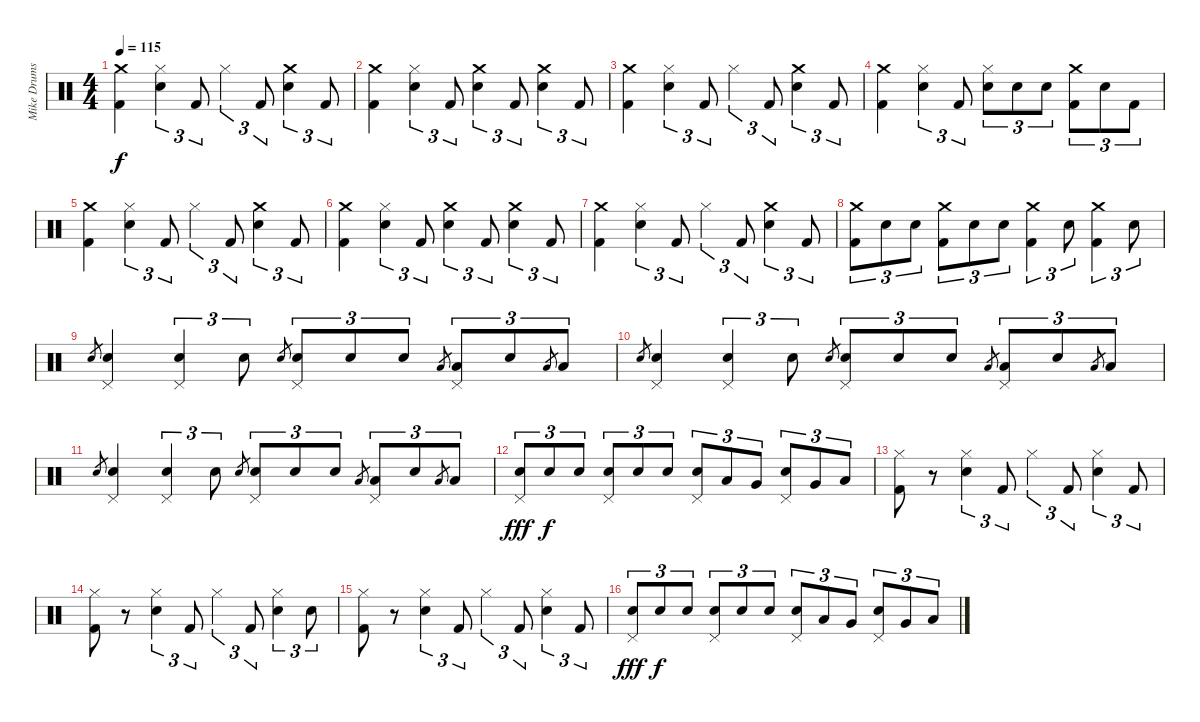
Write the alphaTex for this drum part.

\track ("Mike Drums" "Mike Drums") {instrument percussion}
\staff {score}
\articulation defaults
\ts (4 4)
\tempo 115
\clef neutral
\ks c
("Crash medium (hit)" "Kick (hit) 2").4{dy f} ("Hi-Hat (closed)" "Electric Snare (hit)").4{tu (3 2)} "Kick (hit) 2".8{tu (3 2)} "Hi-Hat (closed)".4{tu (3 2)} "Kick (hit) 2".8{tu (3 2)} ("Crash medium (hit)" "Electric Snare (hit)").4{tu (3 2)} "Kick (hit) 2".8{tu (3 2)} |
("Crash medium (hit)" "Kick (hit) 2").4 ("Hi-Hat (closed)" "Electric Snare (hit)").4{tu (3 2)} "Kick (hit) 2".8{tu (3 2)} ("Crash medium (hit)" "Electric Snare (hit)").4{tu (3 2)} "Kick (hit) 2".8{tu (3 2)} ("Crash medium (hit)" "Electric Snare (hit)").4{tu (3 2)} "Kick (hit) 2".8{tu (3 2)} |
("Crash medium (hit)" "Kick (hit) 2").4 ("Hi-Hat (closed)" "Electric Snare (hit)").4{tu (3 2)} "Kick (hit) 2".8{tu (3 2)} "Hi-Hat (closed)".4{tu (3 2)} "Kick (hit) 2".8{tu (3 2)} ("Crash medium (hit)" "Electric Snare (hit)").4{tu (3 2)} "Kick (hit) 2".8{tu (3 2)} |
("Crash medium (hit)" "Kick (hit) 2").4 ("Hi-Hat (closed)" "Electric Snare (hit)").4{tu (3 2)} "Kick (hit) 2".8{tu (3 2)} ("Hi-Hat (closed)" "Electric Snare (hit)").8{tu (3 2)} "Electric Snare (hit)".8{tu (3 2)} "Electric Snare (hit)".8{tu (3 2)} ("Crash medium (hit)" "Kick (hit) 2").8{tu (3 2)} "Electric Snare (hit)".8{tu (3 2)} "Kick (hit) 2".8{tu (3 2)} |
("Crash medium (hit)" "Kick (hit) 2").4 ("Hi-Hat (closed)" "Electric Snare (hit)").4{tu (3 2)} "Kick (hit) 2".8{tu (3 2)} "Hi-Hat (closed)".4{tu (3 2)} "Kick (hit) 2".8{tu (3 2)} ("Crash medium (hit)" "Electric Snare (hit)").4{tu (3 2)} "Kick (hit) 2".8{tu (3 2)} |
("Crash medium (hit)" "Kick (hit) 2").4 ("Hi-Hat (closed)" "Electric Snare (hit)").4{tu (3 2)} "Kick (hit) 2".8{tu (3 2)} ("Crash medium (hit)" "Electric Snare (hit)").4{tu (3 2)} "Kick (hit) 2".8{tu (3 2)} ("Crash medium (hit)" "Electric Snare (hit)").4{tu (3 2)} "Kick (hit) 2".8{tu (3 2)} |
("Crash medium (hit)" "Kick (hit) 2").4 ("Hi-Hat (closed)" "Electric Snare (hit)").4{tu (3 2)} "Kick (hit) 2".8{tu (3 2)} "Hi-Hat (closed)".4{tu (3 2)} "Kick (hit) 2".8{tu (3 2)} ("Crash medium (hit)" "Electric Snare (hit)").4{tu (3 2)} "Kick (hit) 2".8{tu (3 2)} |
("Crash medium (hit)" "Kick (hit) 2").8{tu (3 2)} "Electric Snare (hit)".8{tu (3 2)} "Electric Snare (hit)".8{tu (3 2)} ("Crash medium (hit)" "Kick (hit) 2").8{tu (3 2)} "Electric Snare (hit)".8{tu (3 2)} "Electric Snare (hit)".8{tu (3 2)} ("Crash medium (hit)" "Kick (hit) 2").4{tu (3 2)} "Electric Snare (hit)".8{tu (3 2)} ("Crash medium (hit)" "Kick (hit) 2").4{tu (3 2)} "Electric Snare (hit)".8{tu (3 2)} |
"Electric Snare (hit)".8{gr} ("Pedal Hi-Hat (hit)" "Electric Snare (hit)").4 ("Pedal Hi-Hat (hit)" "Electric Snare (hit)").4{tu (3 2)} "Electric Snare (hit)".8{tu (3 2)} "Electric Snare (hit)".8{gr} ("Pedal Hi-Hat (hit)" "Electric Snare (hit)").8{tu (3 2)} "Electric Snare (hit)".8{tu (3 2)} "Electric Snare (hit)".8{tu (3 2)} "Low Tom (hit)".8{gr} ("Pedal Hi-Hat (hit)" "Low Tom (hit)").8{tu (3 2)} "Electric Snare (hit)".8{tu (3 2)} "Low Floor Tom (hit)".8{gr} "Low Floor Tom (hit)".8{tu (3 2)} |
"Electric Snare (hit)".8{gr} ("Pedal Hi-Hat (hit)" "Electric Snare (hit)").4 ("Pedal Hi-Hat (hit)" "Electric Snare (hit)").4{tu (3 2)} "Electric Snare (hit)".8{tu (3 2)} "Electric Snare (hit)".8{gr} ("Pedal Hi-Hat (hit)" "Electric Snare (hit)").8{tu (3 2)} "Electric Snare (hit)".8{tu (3 2)} "Electric Snare (hit)".8{tu (3 2)} "Low Tom (hit)".8{gr} ("Pedal Hi-Hat (hit)" "Low Tom (hit)").8{tu (3 2)} "Electric Snare (hit)".8{tu (3 2)} "Low Floor Tom (hit)".8{gr} "Low Floor Tom (hit)".8{tu (3 2)} |
"Electric Snare (hit)".8{gr} ("Pedal Hi-Hat (hit)" "Electric Snare (hit)").4 ("Pedal Hi-Hat (hit)" "Electric Snare (hit)").4{tu (3 2)} "Electric Snare (hit)".8{tu (3 2)} "Electric Snare (hit)".8{gr} ("Pedal Hi-Hat (hit)" "Electric Snare (hit)").8{tu (3 2)} "Electric Snare (hit)".8{tu (3 2)} "Electric Snare (hit)".8{tu (3 2)} "Low Tom (hit)".8{gr} ("Pedal Hi-Hat (hit)" "Low Tom (hit)").8{tu (3 2)} "Electric Snare (hit)".8{tu (3 2)} "Low Floor Tom (hit)".8{gr} "Low Floor Tom (hit)".8{tu (3 2)} |
("Pedal Hi-Hat (hit)" "Electric Snare (hit)").8{tu (3 2) dy fff} "Electric Snare (hit)".8{tu (3 2) dy f} "Electric Snare (hit)".8{tu (3 2)} ("Pedal Hi-Hat (hit)" "Electric Snare (hit)").8{tu (3 2)} "Electric Snare (hit)".8{tu (3 2)} "Electric Snare (hit)".8{tu (3 2)} ("Pedal Hi-Hat (hit)" "Electric Snare (hit)").8{tu (3 2)} "Low Tom (hit)".8{tu (3 2)} "Very Low Tom (hit)".8{tu (3 2)} ("Pedal Hi-Hat (hit)" "Electric Snare (hit)").8{tu (3 2)} "Very Low Tom (hit)".8{tu (3 2)} "Low Floor Tom (hit)".8{tu (3 2)} |
("Hi-Hat (closed)" "Kick (hit) 2").8 r.8 ("Hi-Hat (closed)" "Electric Snare (hit)").4{tu (3 2)} "Kick (hit) 2".8{tu (3 2)} "Hi-Hat (closed)".4{tu (3 2)} "Kick (hit) 2".8{tu (3 2)} ("Hi-Hat (closed)" "Electric Snare (hit)").4{tu (3 2)} "Kick (hit) 2".8{tu (3 2)} |
("Hi-Hat (closed)" "Kick (hit) 2").8 r.8 ("Hi-Hat (closed)" "Electric Snare (hit)").4{tu (3 2)} "Kick (hit) 2".8{tu (3 2)} "Hi-Hat (closed)".4{tu (3 2)} "Kick (hit) 2".8{tu (3 2)} ("Hi-Hat (closed)" "Electric Snare (hit)").4{tu (3 2)} "Electric Snare (hit)".8{tu (3 2)} |
("Hi-Hat (closed)" "Kick (hit) 2").8 r.8 ("Hi-Hat (closed)" "Electric Snare (hit)").4{tu (3 2)} "Kick (hit) 2".8{tu (3 2)} "Hi-Hat (closed)".4{tu (3 2)} "Kick (hit) 2".8{tu (3 2)} ("Hi-Hat (closed)" "Electric Snare (hit)").4{tu (3 2)} "Kick (hit) 2".8{tu (3 2)} |
("Pedal Hi-Hat (hit)" "Electric Snare (hit)").8{tu (3 2) dy fff} "Electric Snare (hit)".8{tu (3 2) dy f} "Electric Snare (hit)".8{tu (3 2)} ("Pedal Hi-Hat (hit)" "Electric Snare (hit)").8{tu (3 2)} "Electric Snare (hit)".8{tu (3 2)} "Electric Snare (hit)".8{tu (3 2)} ("Pedal Hi-Hat (hit)" "Electric Snare (hit)").8{tu (3 2)} "Low Tom (hit)".8{tu (3 2)} "Very Low Tom (hit)".8{tu (3 2)} ("Pedal Hi-Hat (hit)" "Electric Snare (hit)").8{tu (3 2)} "Very Low Tom (hit)".8{tu (3 2)} "Low Floor Tom (hit)".8{tu (3 2)}
